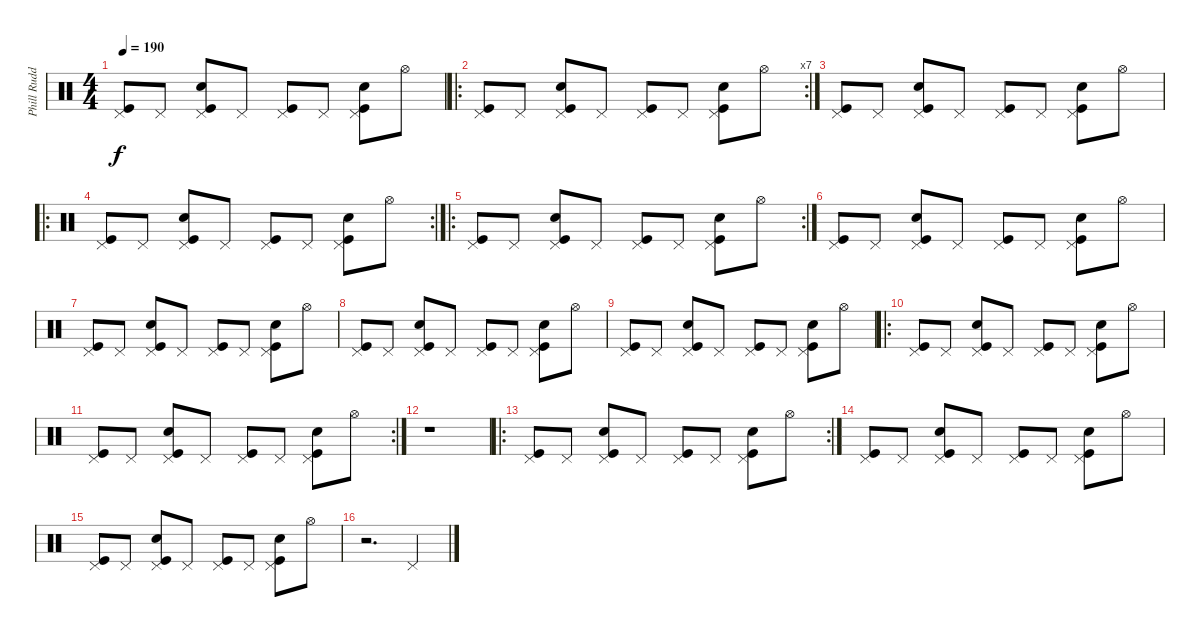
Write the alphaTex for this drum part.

\track ("Phill Rudd (Drums)" "Phill Rudd") {instrument percussion}
\staff {score}
\articulation defaults
\ts (4 4)
\tempo 190
\clef neutral
\ks c
("Pedal Hi-Hat (hit)" "Kick (hit)").8{dy f} "Pedal Hi-Hat (hit)".8 ("Pedal Hi-Hat (hit)" "Snare (hit) 2" "Kick (hit)").8 "Pedal Hi-Hat (hit)".8 ("Pedal Hi-Hat (hit)" "Kick (hit)").8 "Pedal Hi-Hat (hit)".8 ("Pedal Hi-Hat (hit)" "Snare (hit) 2" "Kick (hit)").8 "Hi-Hat (open)".8 |
\ro
\rc 7
("Pedal Hi-Hat (hit)" "Kick (hit)").8 "Pedal Hi-Hat (hit)".8 ("Pedal Hi-Hat (hit)" "Snare (hit) 2" "Kick (hit)").8 "Pedal Hi-Hat (hit)".8 ("Pedal Hi-Hat (hit)" "Kick (hit)").8 "Pedal Hi-Hat (hit)".8 ("Pedal Hi-Hat (hit)" "Snare (hit) 2" "Kick (hit)").8 "Hi-Hat (open)".8 |
("Pedal Hi-Hat (hit)" "Kick (hit)").8 "Pedal Hi-Hat (hit)".8 ("Pedal Hi-Hat (hit)" "Snare (hit) 2" "Kick (hit)").8 "Pedal Hi-Hat (hit)".8 ("Pedal Hi-Hat (hit)" "Kick (hit)").8 "Pedal Hi-Hat (hit)".8 ("Pedal Hi-Hat (hit)" "Snare (hit) 2" "Kick (hit)").8 "Hi-Hat (open)".8 |
\ro
\rc 2
("Pedal Hi-Hat (hit)" "Kick (hit)").8 "Pedal Hi-Hat (hit)".8 ("Pedal Hi-Hat (hit)" "Snare (hit) 2" "Kick (hit)").8 "Pedal Hi-Hat (hit)".8 ("Pedal Hi-Hat (hit)" "Kick (hit)").8 "Pedal Hi-Hat (hit)".8 ("Pedal Hi-Hat (hit)" "Snare (hit) 2" "Kick (hit)").8 "Hi-Hat (open)".8 |
\ro
\rc 2
("Pedal Hi-Hat (hit)" "Kick (hit)").8 "Pedal Hi-Hat (hit)".8 ("Pedal Hi-Hat (hit)" "Snare (hit) 2" "Kick (hit)").8 "Pedal Hi-Hat (hit)".8 ("Pedal Hi-Hat (hit)" "Kick (hit)").8 "Pedal Hi-Hat (hit)".8 ("Pedal Hi-Hat (hit)" "Snare (hit) 2" "Kick (hit)").8 "Hi-Hat (open)".8 |
("Pedal Hi-Hat (hit)" "Kick (hit)").8 "Pedal Hi-Hat (hit)".8 ("Pedal Hi-Hat (hit)" "Snare (hit) 2" "Kick (hit)").8 "Pedal Hi-Hat (hit)".8 ("Pedal Hi-Hat (hit)" "Kick (hit)").8 "Pedal Hi-Hat (hit)".8 ("Pedal Hi-Hat (hit)" "Snare (hit) 2" "Kick (hit)").8 "Hi-Hat (open)".8 |
("Pedal Hi-Hat (hit)" "Kick (hit)").8 "Pedal Hi-Hat (hit)".8 ("Pedal Hi-Hat (hit)" "Snare (hit) 2" "Kick (hit)").8 "Pedal Hi-Hat (hit)".8 ("Pedal Hi-Hat (hit)" "Kick (hit)").8 "Pedal Hi-Hat (hit)".8 ("Pedal Hi-Hat (hit)" "Snare (hit) 2" "Kick (hit)").8 "Hi-Hat (open)".8 |
("Pedal Hi-Hat (hit)" "Kick (hit)").8 "Pedal Hi-Hat (hit)".8 ("Pedal Hi-Hat (hit)" "Snare (hit) 2" "Kick (hit)").8 "Pedal Hi-Hat (hit)".8 ("Pedal Hi-Hat (hit)" "Kick (hit)").8 "Pedal Hi-Hat (hit)".8 ("Pedal Hi-Hat (hit)" "Snare (hit) 2" "Kick (hit)").8 "Hi-Hat (open)".8 |
("Pedal Hi-Hat (hit)" "Kick (hit)").8 "Pedal Hi-Hat (hit)".8 ("Pedal Hi-Hat (hit)" "Snare (hit) 2" "Kick (hit)").8 "Pedal Hi-Hat (hit)".8 ("Pedal Hi-Hat (hit)" "Kick (hit)").8 "Pedal Hi-Hat (hit)".8 ("Pedal Hi-Hat (hit)" "Snare (hit) 2" "Kick (hit)").8 "Hi-Hat (open)".8 |
\ro
("Pedal Hi-Hat (hit)" "Kick (hit)").8 "Pedal Hi-Hat (hit)".8 ("Pedal Hi-Hat (hit)" "Snare (hit) 2" "Kick (hit)").8 "Pedal Hi-Hat (hit)".8 ("Pedal Hi-Hat (hit)" "Kick (hit)").8 "Pedal Hi-Hat (hit)".8 ("Pedal Hi-Hat (hit)" "Snare (hit) 2" "Kick (hit)").8 "Hi-Hat (open)".8 |
\rc 2
("Pedal Hi-Hat (hit)" "Kick (hit)").8 "Pedal Hi-Hat (hit)".8 ("Pedal Hi-Hat (hit)" "Snare (hit) 2" "Kick (hit)").8 "Pedal Hi-Hat (hit)".8 ("Pedal Hi-Hat (hit)" "Kick (hit)").8 "Pedal Hi-Hat (hit)".8 ("Pedal Hi-Hat (hit)" "Snare (hit) 2" "Kick (hit)").8 "Hi-Hat (open)".8 |
r.1 |
\ro
\rc 2
("Pedal Hi-Hat (hit)" "Kick (hit)").8 "Pedal Hi-Hat (hit)".8 ("Pedal Hi-Hat (hit)" "Snare (hit) 2" "Kick (hit)").8 "Pedal Hi-Hat (hit)".8 ("Pedal Hi-Hat (hit)" "Kick (hit)").8 "Pedal Hi-Hat (hit)".8 ("Pedal Hi-Hat (hit)" "Snare (hit) 2" "Kick (hit)").8 "Hi-Hat (open)".8 |
("Pedal Hi-Hat (hit)" "Kick (hit)").8 "Pedal Hi-Hat (hit)".8 ("Pedal Hi-Hat (hit)" "Snare (hit) 2" "Kick (hit)").8 "Pedal Hi-Hat (hit)".8 ("Pedal Hi-Hat (hit)" "Kick (hit)").8 "Pedal Hi-Hat (hit)".8 ("Pedal Hi-Hat (hit)" "Snare (hit) 2" "Kick (hit)").8 "Hi-Hat (open)".8 |
("Pedal Hi-Hat (hit)" "Kick (hit)").8 "Pedal Hi-Hat (hit)".8 ("Pedal Hi-Hat (hit)" "Snare (hit) 2" "Kick (hit)").8 "Pedal Hi-Hat (hit)".8 ("Pedal Hi-Hat (hit)" "Kick (hit)").8 "Pedal Hi-Hat (hit)".8 ("Pedal Hi-Hat (hit)" "Snare (hit) 2" "Kick (hit)").8 "Hi-Hat (open)".8 |
r.2{d} "Pedal Hi-Hat (hit)".4
